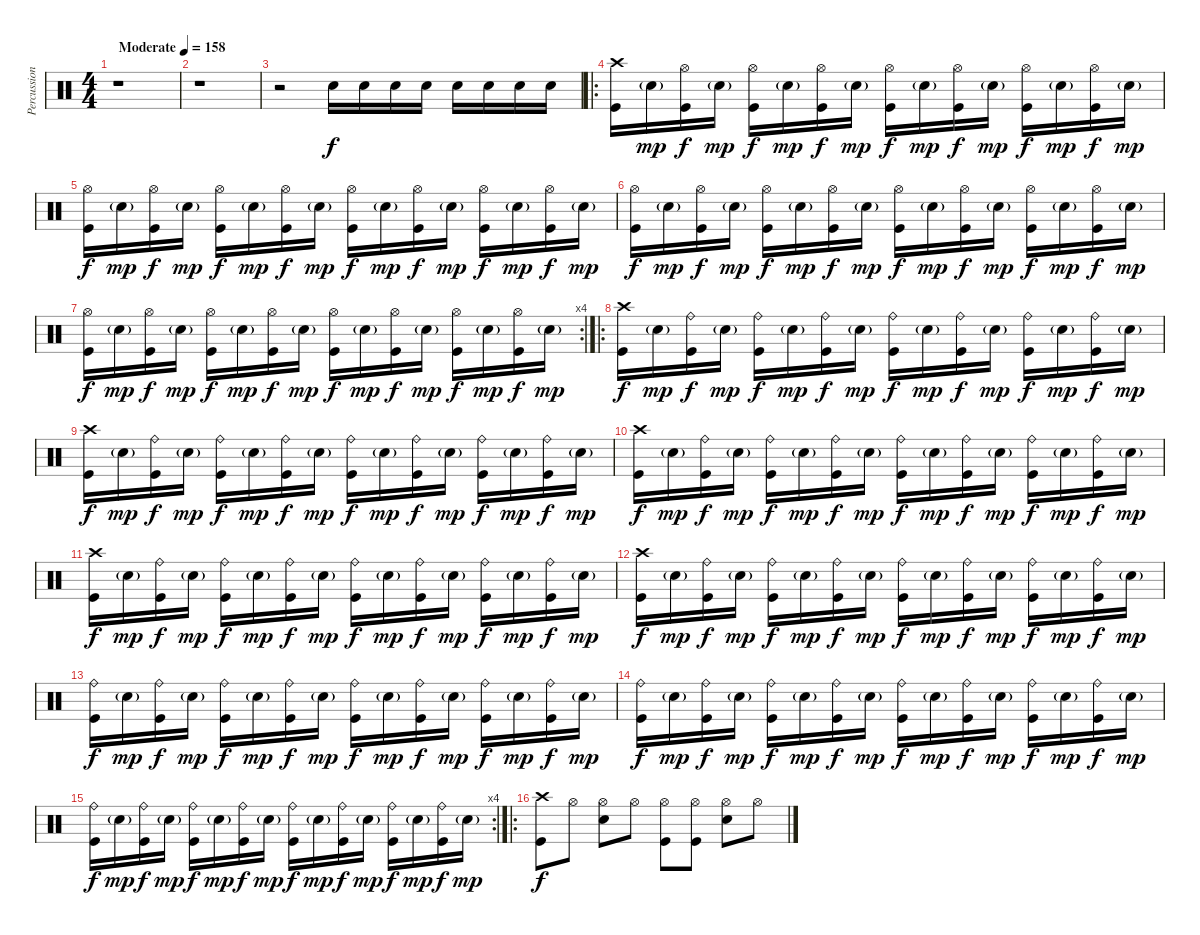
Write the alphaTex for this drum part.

\track ("Percussion" "Percussion") {instrument percussion}
\staff {score}
\articulation defaults
\ts (4 4)
\tempo (158 "Moderate")
\clef neutral
\ks c
r.1{dy f} |
r.1 |
r.2 "Snare (hit) 2".16 "Snare (hit) 2".16 "Snare (hit) 2".16 "Snare (hit) 2".16 "Snare (hit) 2".16 "Snare (hit) 2".16 "Snare (hit) 2".16 "Snare (hit) 2".16 |
\ro
("Crash high (hit)" "Kick (hit)").16 "Snare (hit) 2"{g}.16{dy mp} ("Hi-Hat (open)" "Kick (hit)").16{dy f} "Snare (hit) 2"{g}.16{dy mp} ("Hi-Hat (open)" "Kick (hit)").16{dy f} "Snare (hit) 2"{g}.16{dy mp} ("Hi-Hat (open)" "Kick (hit)").16{dy f} "Snare (hit) 2"{g}.16{dy mp} ("Hi-Hat (open)" "Kick (hit)").16{dy f} "Snare (hit) 2"{g}.16{dy mp} ("Hi-Hat (open)" "Kick (hit)").16{dy f} "Snare (hit) 2"{g}.16{dy mp} ("Hi-Hat (open)" "Kick (hit)").16{dy f} "Snare (hit) 2"{g}.16{dy mp} ("Hi-Hat (open)" "Kick (hit)").16{dy f} "Snare (hit) 2"{g}.16{dy mp} |
("Hi-Hat (open)" "Kick (hit)").16{dy f} "Snare (hit) 2"{g}.16{dy mp} ("Hi-Hat (open)" "Kick (hit)").16{dy f} "Snare (hit) 2"{g}.16{dy mp} ("Hi-Hat (open)" "Kick (hit)").16{dy f} "Snare (hit) 2"{g}.16{dy mp} ("Hi-Hat (open)" "Kick (hit)").16{dy f} "Snare (hit) 2"{g}.16{dy mp} ("Hi-Hat (open)" "Kick (hit)").16{dy f} "Snare (hit) 2"{g}.16{dy mp} ("Hi-Hat (open)" "Kick (hit)").16{dy f} "Snare (hit) 2"{g}.16{dy mp} ("Hi-Hat (open)" "Kick (hit)").16{dy f} "Snare (hit) 2"{g}.16{dy mp} ("Hi-Hat (open)" "Kick (hit)").16{dy f} "Snare (hit) 2"{g}.16{dy mp} |
("Hi-Hat (open)" "Kick (hit)").16{dy f} "Snare (hit) 2"{g}.16{dy mp} ("Hi-Hat (open)" "Kick (hit)").16{dy f} "Snare (hit) 2"{g}.16{dy mp} ("Hi-Hat (open)" "Kick (hit)").16{dy f} "Snare (hit) 2"{g}.16{dy mp} ("Hi-Hat (open)" "Kick (hit)").16{dy f} "Snare (hit) 2"{g}.16{dy mp} ("Hi-Hat (open)" "Kick (hit)").16{dy f} "Snare (hit) 2"{g}.16{dy mp} ("Hi-Hat (open)" "Kick (hit)").16{dy f} "Snare (hit) 2"{g}.16{dy mp} ("Hi-Hat (open)" "Kick (hit)").16{dy f} "Snare (hit) 2"{g}.16{dy mp} ("Hi-Hat (open)" "Kick (hit)").16{dy f} "Snare (hit) 2"{g}.16{dy mp} |
\rc 4
("Hi-Hat (open)" "Kick (hit)").16{dy f} "Snare (hit) 2"{g}.16{dy mp} ("Hi-Hat (open)" "Kick (hit)").16{dy f} "Snare (hit) 2"{g}.16{dy mp} ("Hi-Hat (open)" "Kick (hit)").16{dy f} "Snare (hit) 2"{g}.16{dy mp} ("Hi-Hat (open)" "Kick (hit)").16{dy f} "Snare (hit) 2"{g}.16{dy mp} ("Hi-Hat (open)" "Kick (hit)").16{dy f} "Snare (hit) 2"{g}.16{dy mp} ("Hi-Hat (open)" "Kick (hit)").16{dy f} "Snare (hit) 2"{g}.16{dy mp} ("Hi-Hat (open)" "Kick (hit)").16{dy f} "Snare (hit) 2"{g}.16{dy mp} ("Hi-Hat (open)" "Kick (hit)").16{dy f} "Snare (hit) 2"{g}.16{dy mp} |
\ro
("Crash high (hit)" "Kick (hit)").16{dy f} "Snare (hit) 2"{g}.16{dy mp} ("Ride (bell)" "Kick (hit)").16{dy f} "Snare (hit) 2"{g}.16{dy mp} ("Ride (bell)" "Kick (hit)").16{dy f} "Snare (hit) 2"{g}.16{dy mp} ("Ride (bell)" "Kick (hit)").16{dy f} "Snare (hit) 2"{g}.16{dy mp} ("Ride (bell)" "Kick (hit)").16{dy f} "Snare (hit) 2"{g}.16{dy mp} ("Ride (bell)" "Kick (hit)").16{dy f} "Snare (hit) 2"{g}.16{dy mp} ("Ride (bell)" "Kick (hit)").16{dy f} "Snare (hit) 2"{g}.16{dy mp} ("Ride (bell)" "Kick (hit)").16{dy f} "Snare (hit) 2"{g}.16{dy mp} |
("Crash high (hit)" "Kick (hit)").16{dy f} "Snare (hit) 2"{g}.16{dy mp} ("Ride (bell)" "Kick (hit)").16{dy f} "Snare (hit) 2"{g}.16{dy mp} ("Ride (bell)" "Kick (hit)").16{dy f} "Snare (hit) 2"{g}.16{dy mp} ("Ride (bell)" "Kick (hit)").16{dy f} "Snare (hit) 2"{g}.16{dy mp} ("Ride (bell)" "Kick (hit)").16{dy f} "Snare (hit) 2"{g}.16{dy mp} ("Ride (bell)" "Kick (hit)").16{dy f} "Snare (hit) 2"{g}.16{dy mp} ("Ride (bell)" "Kick (hit)").16{dy f} "Snare (hit) 2"{g}.16{dy mp} ("Ride (bell)" "Kick (hit)").16{dy f} "Snare (hit) 2"{g}.16{dy mp} |
("Crash high (hit)" "Kick (hit)").16{dy f} "Snare (hit) 2"{g}.16{dy mp} ("Ride (bell)" "Kick (hit)").16{dy f} "Snare (hit) 2"{g}.16{dy mp} ("Ride (bell)" "Kick (hit)").16{dy f} "Snare (hit) 2"{g}.16{dy mp} ("Ride (bell)" "Kick (hit)").16{dy f} "Snare (hit) 2"{g}.16{dy mp} ("Ride (bell)" "Kick (hit)").16{dy f} "Snare (hit) 2"{g}.16{dy mp} ("Ride (bell)" "Kick (hit)").16{dy f} "Snare (hit) 2"{g}.16{dy mp} ("Ride (bell)" "Kick (hit)").16{dy f} "Snare (hit) 2"{g}.16{dy mp} ("Ride (bell)" "Kick (hit)").16{dy f} "Snare (hit) 2"{g}.16{dy mp} |
("Crash high (hit)" "Kick (hit)").16{dy f} "Snare (hit) 2"{g}.16{dy mp} ("Ride (bell)" "Kick (hit)").16{dy f} "Snare (hit) 2"{g}.16{dy mp} ("Ride (bell)" "Kick (hit)").16{dy f} "Snare (hit) 2"{g}.16{dy mp} ("Ride (bell)" "Kick (hit)").16{dy f} "Snare (hit) 2"{g}.16{dy mp} ("Ride (bell)" "Kick (hit)").16{dy f} "Snare (hit) 2"{g}.16{dy mp} ("Ride (bell)" "Kick (hit)").16{dy f} "Snare (hit) 2"{g}.16{dy mp} ("Ride (bell)" "Kick (hit)").16{dy f} "Snare (hit) 2"{g}.16{dy mp} ("Ride (bell)" "Kick (hit)").16{dy f} "Snare (hit) 2"{g}.16{dy mp} |
("Crash high (hit)" "Kick (hit)").16{dy f} "Snare (hit) 2"{g}.16{dy mp} ("Ride (bell)" "Kick (hit)").16{dy f} "Snare (hit) 2"{g}.16{dy mp} ("Ride (bell)" "Kick (hit)").16{dy f} "Snare (hit) 2"{g}.16{dy mp} ("Ride (bell)" "Kick (hit)").16{dy f} "Snare (hit) 2"{g}.16{dy mp} ("Ride (bell)" "Kick (hit)").16{dy f} "Snare (hit) 2"{g}.16{dy mp} ("Ride (bell)" "Kick (hit)").16{dy f} "Snare (hit) 2"{g}.16{dy mp} ("Ride (bell)" "Kick (hit)").16{dy f} "Snare (hit) 2"{g}.16{dy mp} ("Ride (bell)" "Kick (hit)").16{dy f} "Snare (hit) 2"{g}.16{dy mp} |
("Ride (bell)" "Kick (hit)").16{dy f} "Snare (hit) 2"{g}.16{dy mp} ("Ride (bell)" "Kick (hit)").16{dy f} "Snare (hit) 2"{g}.16{dy mp} ("Ride (bell)" "Kick (hit)").16{dy f} "Snare (hit) 2"{g}.16{dy mp} ("Ride (bell)" "Kick (hit)").16{dy f} "Snare (hit) 2"{g}.16{dy mp} ("Ride (bell)" "Kick (hit)").16{dy f} "Snare (hit) 2"{g}.16{dy mp} ("Ride (bell)" "Kick (hit)").16{dy f} "Snare (hit) 2"{g}.16{dy mp} ("Ride (bell)" "Kick (hit)").16{dy f} "Snare (hit) 2"{g}.16{dy mp} ("Ride (bell)" "Kick (hit)").16{dy f} "Snare (hit) 2"{g}.16{dy mp} |
("Ride (bell)" "Kick (hit)").16{dy f} "Snare (hit) 2"{g}.16{dy mp} ("Ride (bell)" "Kick (hit)").16{dy f} "Snare (hit) 2"{g}.16{dy mp} ("Ride (bell)" "Kick (hit)").16{dy f} "Snare (hit) 2"{g}.16{dy mp} ("Ride (bell)" "Kick (hit)").16{dy f} "Snare (hit) 2"{g}.16{dy mp} ("Ride (bell)" "Kick (hit)").16{dy f} "Snare (hit) 2"{g}.16{dy mp} ("Ride (bell)" "Kick (hit)").16{dy f} "Snare (hit) 2"{g}.16{dy mp} ("Ride (bell)" "Kick (hit)").16{dy f} "Snare (hit) 2"{g}.16{dy mp} ("Ride (bell)" "Kick (hit)").16{dy f} "Snare (hit) 2"{g}.16{dy mp} |
\rc 4
("Ride (bell)" "Kick (hit)").16{dy f} "Snare (hit) 2"{g}.16{dy mp} ("Ride (bell)" "Kick (hit)").16{dy f} "Snare (hit) 2"{g}.16{dy mp} ("Ride (bell)" "Kick (hit)").16{dy f} "Snare (hit) 2"{g}.16{dy mp} ("Ride (bell)" "Kick (hit)").16{dy f} "Snare (hit) 2"{g}.16{dy mp} ("Ride (bell)" "Kick (hit)").16{dy f} "Snare (hit) 2"{g}.16{dy mp} ("Ride (bell)" "Kick (hit)").16{dy f} "Snare (hit) 2"{g}.16{dy mp} ("Ride (bell)" "Kick (hit)").16{dy f} "Snare (hit) 2"{g}.16{dy mp} ("Ride (bell)" "Kick (hit)").16{dy f} "Snare (hit) 2"{g}.16{dy mp} |
\ro
("Crash high (hit)" "Kick (hit)").8{dy f} "Hi-Hat (open)".8 ("Hi-Hat (open)" "Snare (hit) 2").8 "Hi-Hat (open)".8 ("Hi-Hat (open)" "Kick (hit)").8 ("Hi-Hat (open)" "Kick (hit)").8 ("Hi-Hat (open)" "Snare (hit) 2").8 "Hi-Hat (open)".8
